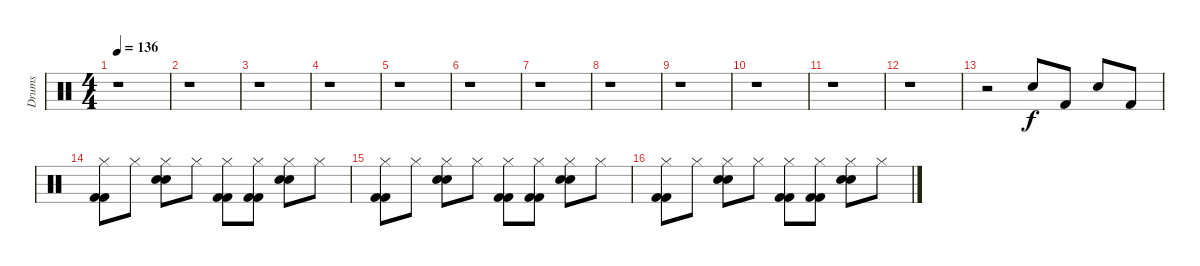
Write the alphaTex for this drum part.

\track ("Drums" "Drums") {instrument percussion}
\staff {score}
\articulation defaults
\ts (4 4)
\tempo 136
\clef neutral
\ks c
r.1{dy f} |
r.1 |
r.1 |
r.1 |
r.1 |
r.1 |
r.1 |
r.1 |
r.1 |
r.1 |
r.1 |
r.1 |
r.2 "Electric Snare (hit)".8 "Kick (hit) 2".8 "Electric Snare (hit)".8 "Kick (hit) 2".8 |
("Kick (hit) 2" "Kick (hit) 2" "Hi-Hat (closed)").8 "Hi-Hat (closed)".8 ("Electric Snare (hit)" "Electric Snare (hit)" "Hi-Hat (closed)").8 "Hi-Hat (closed)".8 ("Kick (hit) 2" "Kick (hit) 2" "Hi-Hat (closed)").8 ("Kick (hit) 2" "Kick (hit) 2" "Hi-Hat (closed)").8 ("Electric Snare (hit)" "Electric Snare (hit)" "Hi-Hat (closed)").8 "Hi-Hat (closed)".8 |
("Kick (hit) 2" "Kick (hit) 2" "Hi-Hat (closed)").8 "Hi-Hat (closed)".8 ("Electric Snare (hit)" "Electric Snare (hit)" "Hi-Hat (closed)").8 "Hi-Hat (closed)".8 ("Kick (hit) 2" "Kick (hit) 2" "Hi-Hat (closed)").8 ("Kick (hit) 2" "Kick (hit) 2" "Hi-Hat (closed)").8 ("Electric Snare (hit)" "Electric Snare (hit)" "Hi-Hat (closed)").8 "Hi-Hat (closed)".8 |
("Kick (hit) 2" "Kick (hit) 2" "Hi-Hat (closed)").8 "Hi-Hat (closed)".8 ("Electric Snare (hit)" "Electric Snare (hit)" "Hi-Hat (closed)").8 "Hi-Hat (closed)".8 ("Kick (hit) 2" "Kick (hit) 2" "Hi-Hat (closed)").8 ("Kick (hit) 2" "Kick (hit) 2" "Hi-Hat (closed)").8 ("Electric Snare (hit)" "Electric Snare (hit)" "Hi-Hat (closed)").8 "Hi-Hat (closed)".8
